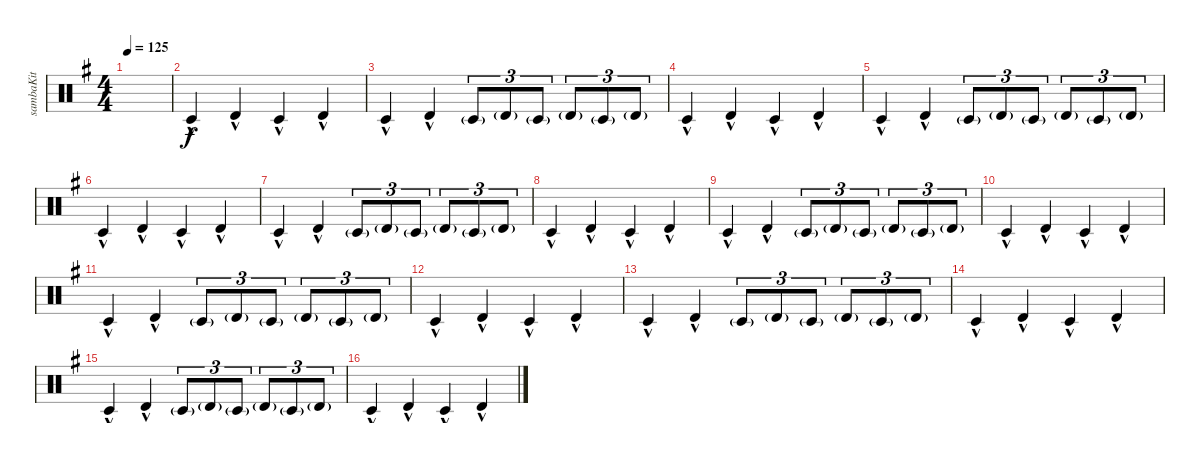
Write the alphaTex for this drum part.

\defaultSystemsLayout 4
\bracketExtendMode groupsimilarinstruments
\otherSystemsTrackNameOrientation horizontal
\track ("Kit-Samba" "sambaKit") {instrument percussion}
\staff {score}
\articulation defaults
\ts (4 4)
\tempo 125
\clef neutral
\scale
0.474178
\ks g
|
\scale
0.262911 "Timbale low (hit)"{hac acc forcenatural}.4{beam Up} "Timbale high (hit)"{hac acc forcenatural}.4{beam Up} "Timbale low (hit)"{hac acc forcenatural}.4{beam Up} "Timbale high (hit)"{hac acc forcenatural}.4{beam Up} |
"Timbale low (hit)"{hac acc forcenatural}.4{beam Up} "Timbale high (hit)"{hac acc forcenatural}.4{beam Up} "Timbale low (hit)"{g acc forcenatural}.8{tu (3 2) beam Up} "Timbale high (hit)"{g acc forcenatural}.8{tu (3 2) beam Up} "Timbale low (hit)"{g acc forcenatural}.8{tu (3 2) beam Up} "Timbale high (hit)"{g acc forcenatural}.8{tu (3 2) beam Up} "Timbale low (hit)"{g acc forcenatural}.8{tu (3 2) beam Up} "Timbale high (hit)"{g acc forcenatural}.8{tu (3 2) beam Up} |
"Timbale low (hit)"{hac acc forcenatural}.4{beam Up} "Timbale high (hit)"{hac acc forcenatural}.4{beam Up} "Timbale low (hit)"{hac acc forcenatural}.4{beam Up} "Timbale high (hit)"{hac acc forcenatural}.4{beam Up} |
"Timbale low (hit)"{hac acc forcenatural}.4{beam Up} "Timbale high (hit)"{hac acc forcenatural}.4{beam Up} "Timbale low (hit)"{g acc forcenatural}.8{tu (3 2) beam Up} "Timbale high (hit)"{g acc forcenatural}.8{tu (3 2) beam Up} "Timbale low (hit)"{g acc forcenatural}.8{tu (3 2) beam Up} "Timbale high (hit)"{g acc forcenatural}.8{tu (3 2) beam Up} "Timbale low (hit)"{g acc forcenatural}.8{tu (3 2) beam Up} "Timbale high (hit)"{g acc forcenatural}.8{tu (3 2) beam Up} |
\scale
0.262911 "Timbale low (hit)"{hac acc forcenatural}.4{beam Up} "Timbale high (hit)"{hac acc forcenatural}.4{beam Up} "Timbale low (hit)"{hac acc forcenatural}.4{beam Up} "Timbale high (hit)"{hac acc forcenatural}.4{beam Up} |
\scale
0.333333 "Timbale low (hit)"{hac acc forcenatural}.4{beam Up} "Timbale high (hit)"{hac acc forcenatural}.4{beam Up} "Timbale low (hit)"{g acc forcenatural}.8{tu (3 2) beam Up} "Timbale high (hit)"{g acc forcenatural}.8{tu (3 2) beam Up} "Timbale low (hit)"{g acc forcenatural}.8{tu (3 2) beam Up} "Timbale high (hit)"{g acc forcenatural}.8{tu (3 2) beam Up} "Timbale low (hit)"{g acc forcenatural}.8{tu (3 2) beam Up} "Timbale high (hit)"{g acc forcenatural}.8{tu (3 2) beam Up} |
\scale
0.333333 "Timbale low (hit)"{hac acc forcenatural}.4{beam Up} "Timbale high (hit)"{hac acc forcenatural}.4{beam Up} "Timbale low (hit)"{hac acc forcenatural}.4{beam Up} "Timbale high (hit)"{hac acc forcenatural}.4{beam Up} |
"Timbale low (hit)"{hac acc forcenatural}.4{beam Up} "Timbale high (hit)"{hac acc forcenatural}.4{beam Up} "Timbale low (hit)"{g acc forcenatural}.8{tu (3 2) beam Up} "Timbale high (hit)"{g acc forcenatural}.8{tu (3 2) beam Up} "Timbale low (hit)"{g acc forcenatural}.8{tu (3 2) beam Up} "Timbale high (hit)"{g acc forcenatural}.8{tu (3 2) beam Up} "Timbale low (hit)"{g acc forcenatural}.8{tu (3 2) beam Up} "Timbale high (hit)"{g acc forcenatural}.8{tu (3 2) beam Up} |
\scale
0.333333 "Timbale low (hit)"{hac acc forcenatural}.4{beam Up} "Timbale high (hit)"{hac acc forcenatural}.4{beam Up} "Timbale low (hit)"{hac acc forcenatural}.4{beam Up} "Timbale high (hit)"{hac acc forcenatural}.4{beam Up} |
\scale
0.333333 "Timbale low (hit)"{hac acc forcenatural}.4{beam Up} "Timbale high (hit)"{hac acc forcenatural}.4{beam Up} "Timbale low (hit)"{g acc forcenatural}.8{tu (3 2) beam Up} "Timbale high (hit)"{g acc forcenatural}.8{tu (3 2) beam Up} "Timbale low (hit)"{g acc forcenatural}.8{tu (3 2) beam Up} "Timbale high (hit)"{g acc forcenatural}.8{tu (3 2) beam Up} "Timbale low (hit)"{g acc forcenatural}.8{tu (3 2) beam Up} "Timbale high (hit)"{g acc forcenatural}.8{tu (3 2) beam Up} |
\scale
0.333333 "Timbale low (hit)"{hac acc forcenatural}.4{beam Up} "Timbale high (hit)"{hac acc forcenatural}.4{beam Up} "Timbale low (hit)"{hac acc forcenatural}.4{beam Up} "Timbale high (hit)"{hac acc forcenatural}.4{beam Up} |
\scale
0.333333 "Timbale low (hit)"{hac acc forcenatural}.4{beam Up} "Timbale high (hit)"{hac acc forcenatural}.4{beam Up} "Timbale low (hit)"{g acc forcenatural}.8{tu (3 2) beam Up} "Timbale high (hit)"{g acc forcenatural}.8{tu (3 2) beam Up} "Timbale low (hit)"{g acc forcenatural}.8{tu (3 2) beam Up} "Timbale high (hit)"{g acc forcenatural}.8{tu (3 2) beam Up} "Timbale low (hit)"{g acc forcenatural}.8{tu (3 2) beam Up} "Timbale high (hit)"{g acc forcenatural}.8{tu (3 2) beam Up} |
\scale
0.333333 "Timbale low (hit)"{hac acc forcenatural}.4{beam Up} "Timbale high (hit)"{hac acc forcenatural}.4{beam Up} "Timbale low (hit)"{hac acc forcenatural}.4{beam Up} "Timbale high (hit)"{hac acc forcenatural}.4{beam Up} |
\scale
0.333333 "Timbale low (hit)"{hac acc forcenatural}.4{beam Up} "Timbale high (hit)"{hac acc forcenatural}.4{beam Up} "Timbale low (hit)"{g acc forcenatural}.8{tu (3 2) beam Up} "Timbale high (hit)"{g acc forcenatural}.8{tu (3 2) beam Up} "Timbale low (hit)"{g acc forcenatural}.8{tu (3 2) beam Up} "Timbale high (hit)"{g acc forcenatural}.8{tu (3 2) beam Up} "Timbale low (hit)"{g acc forcenatural}.8{tu (3 2) beam Up} "Timbale high (hit)"{g acc forcenatural}.8{tu (3 2) beam Up} |
\scale
0.333333 "Timbale low (hit)"{hac acc forcenatural}.4{beam Up} "Timbale high (hit)"{hac acc forcenatural}.4{beam Up} "Timbale low (hit)"{hac acc forcenatural}.4{beam Up} "Timbale high (hit)"{hac acc forcenatural}.4{beam Up}
